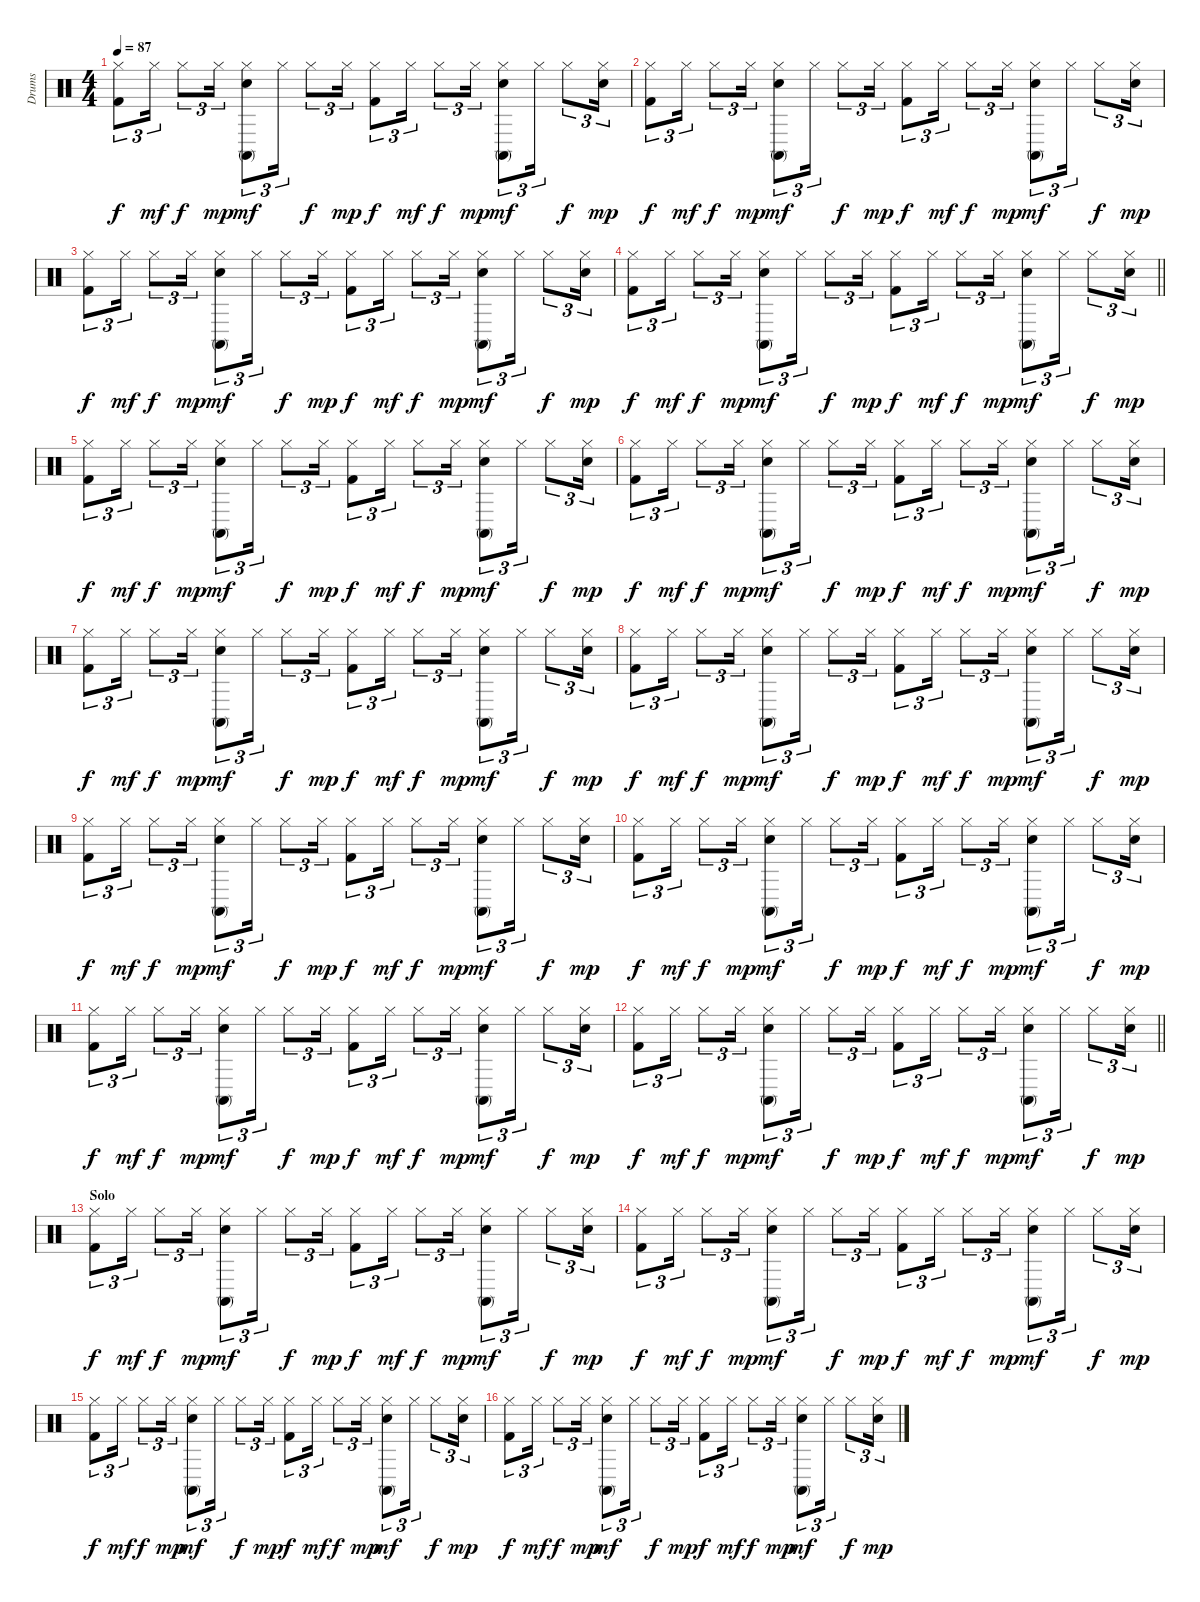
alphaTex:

\track ("Drums" "Drums") {instrument percussion}
\staff {score}
\articulation defaults
\ts (4 4)
\tempo 87
\clef neutral
\ks c
("Hi-Hat (closed)" "Kick (hit) 2").8{tu (3 2) dy f} "Hi-Hat (closed)".16{tu (3 2) dy mf} "Hi-Hat (closed)".8{tu (3 2) dy f} "Hi-Hat (closed)".16{tu (3 2) dy mp} ("Conga high (mute)" "Hi-Hat (closed)" "Electric Snare (hit)").8{tu (3 2) dy mf} "Hi-Hat (closed)".16{tu (3 2)} "Hi-Hat (closed)".8{tu (3 2) dy f} "Hi-Hat (closed)".16{tu (3 2) dy mp} ("Hi-Hat (closed)" "Kick (hit) 2").8{tu (3 2) dy f} "Hi-Hat (closed)".16{tu (3 2) dy mf} "Hi-Hat (closed)".8{tu (3 2) dy f} "Hi-Hat (closed)".16{tu (3 2) dy mp} ("Conga high (mute)" "Hi-Hat (closed)" "Electric Snare (hit)").8{tu (3 2) dy mf} "Hi-Hat (closed)".16{tu (3 2)} "Hi-Hat (closed)".8{tu (3 2) dy f} ("Hi-Hat (closed)" "Electric Snare (hit)").16{tu (3 2) dy mp} |
("Hi-Hat (closed)" "Kick (hit) 2").8{tu (3 2) dy f} "Hi-Hat (closed)".16{tu (3 2) dy mf} "Hi-Hat (closed)".8{tu (3 2) dy f} "Hi-Hat (closed)".16{tu (3 2) dy mp} ("Conga high (mute)" "Hi-Hat (closed)" "Electric Snare (hit)").8{tu (3 2) dy mf} "Hi-Hat (closed)".16{tu (3 2)} "Hi-Hat (closed)".8{tu (3 2) dy f} "Hi-Hat (closed)".16{tu (3 2) dy mp} ("Hi-Hat (closed)" "Kick (hit) 2").8{tu (3 2) dy f} "Hi-Hat (closed)".16{tu (3 2) dy mf} "Hi-Hat (closed)".8{tu (3 2) dy f} "Hi-Hat (closed)".16{tu (3 2) dy mp} ("Conga high (mute)" "Hi-Hat (closed)" "Electric Snare (hit)").8{tu (3 2) dy mf} "Hi-Hat (closed)".16{tu (3 2)} "Hi-Hat (closed)".8{tu (3 2) dy f} ("Hi-Hat (closed)" "Electric Snare (hit)").16{tu (3 2) dy mp} |
("Hi-Hat (closed)" "Kick (hit) 2").8{tu (3 2) dy f} "Hi-Hat (closed)".16{tu (3 2) dy mf} "Hi-Hat (closed)".8{tu (3 2) dy f} "Hi-Hat (closed)".16{tu (3 2) dy mp} ("Conga high (mute)" "Hi-Hat (closed)" "Electric Snare (hit)").8{tu (3 2) dy mf} "Hi-Hat (closed)".16{tu (3 2)} "Hi-Hat (closed)".8{tu (3 2) dy f} "Hi-Hat (closed)".16{tu (3 2) dy mp} ("Hi-Hat (closed)" "Kick (hit) 2").8{tu (3 2) dy f} "Hi-Hat (closed)".16{tu (3 2) dy mf} "Hi-Hat (closed)".8{tu (3 2) dy f} "Hi-Hat (closed)".16{tu (3 2) dy mp} ("Conga high (mute)" "Hi-Hat (closed)" "Electric Snare (hit)").8{tu (3 2) dy mf} "Hi-Hat (closed)".16{tu (3 2)} "Hi-Hat (closed)".8{tu (3 2) dy f} ("Hi-Hat (closed)" "Electric Snare (hit)").16{tu (3 2) dy mp} |
\barLineRight lightlight
("Hi-Hat (closed)" "Kick (hit) 2").8{tu (3 2) dy f} "Hi-Hat (closed)".16{tu (3 2) dy mf} "Hi-Hat (closed)".8{tu (3 2) dy f} "Hi-Hat (closed)".16{tu (3 2) dy mp} ("Conga high (mute)" "Hi-Hat (closed)" "Electric Snare (hit)").8{tu (3 2) dy mf} "Hi-Hat (closed)".16{tu (3 2)} "Hi-Hat (closed)".8{tu (3 2) dy f} "Hi-Hat (closed)".16{tu (3 2) dy mp} ("Hi-Hat (closed)" "Kick (hit) 2").8{tu (3 2) dy f} "Hi-Hat (closed)".16{tu (3 2) dy mf} "Hi-Hat (closed)".8{tu (3 2) dy f} "Hi-Hat (closed)".16{tu (3 2) dy mp} ("Conga high (mute)" "Hi-Hat (closed)" "Electric Snare (hit)").8{tu (3 2) dy mf} "Hi-Hat (closed)".16{tu (3 2)} "Hi-Hat (closed)".8{tu (3 2) dy f} ("Hi-Hat (closed)" "Electric Snare (hit)").16{tu (3 2) dy mp} |
("Hi-Hat (closed)" "Kick (hit) 2").8{tu (3 2) dy f} "Hi-Hat (closed)".16{tu (3 2) dy mf} "Hi-Hat (closed)".8{tu (3 2) dy f} "Hi-Hat (closed)".16{tu (3 2) dy mp} ("Conga high (mute)" "Hi-Hat (closed)" "Electric Snare (hit)").8{tu (3 2) dy mf} "Hi-Hat (closed)".16{tu (3 2)} "Hi-Hat (closed)".8{tu (3 2) dy f} "Hi-Hat (closed)".16{tu (3 2) dy mp} ("Hi-Hat (closed)" "Kick (hit) 2").8{tu (3 2) dy f} "Hi-Hat (closed)".16{tu (3 2) dy mf} "Hi-Hat (closed)".8{tu (3 2) dy f} "Hi-Hat (closed)".16{tu (3 2) dy mp} ("Conga high (mute)" "Hi-Hat (closed)" "Electric Snare (hit)").8{tu (3 2) dy mf} "Hi-Hat (closed)".16{tu (3 2)} "Hi-Hat (closed)".8{tu (3 2) dy f} ("Hi-Hat (closed)" "Electric Snare (hit)").16{tu (3 2) dy mp} |
("Hi-Hat (closed)" "Kick (hit) 2").8{tu (3 2) dy f} "Hi-Hat (closed)".16{tu (3 2) dy mf} "Hi-Hat (closed)".8{tu (3 2) dy f} "Hi-Hat (closed)".16{tu (3 2) dy mp} ("Conga high (mute)" "Hi-Hat (closed)" "Electric Snare (hit)").8{tu (3 2) dy mf} "Hi-Hat (closed)".16{tu (3 2)} "Hi-Hat (closed)".8{tu (3 2) dy f} "Hi-Hat (closed)".16{tu (3 2) dy mp} ("Hi-Hat (closed)" "Kick (hit) 2").8{tu (3 2) dy f} "Hi-Hat (closed)".16{tu (3 2) dy mf} "Hi-Hat (closed)".8{tu (3 2) dy f} "Hi-Hat (closed)".16{tu (3 2) dy mp} ("Conga high (mute)" "Hi-Hat (closed)" "Electric Snare (hit)").8{tu (3 2) dy mf} "Hi-Hat (closed)".16{tu (3 2)} "Hi-Hat (closed)".8{tu (3 2) dy f} ("Hi-Hat (closed)" "Electric Snare (hit)").16{tu (3 2) dy mp} |
("Hi-Hat (closed)" "Kick (hit) 2").8{tu (3 2) dy f} "Hi-Hat (closed)".16{tu (3 2) dy mf} "Hi-Hat (closed)".8{tu (3 2) dy f} "Hi-Hat (closed)".16{tu (3 2) dy mp} ("Conga high (mute)" "Hi-Hat (closed)" "Electric Snare (hit)").8{tu (3 2) dy mf} "Hi-Hat (closed)".16{tu (3 2)} "Hi-Hat (closed)".8{tu (3 2) dy f} "Hi-Hat (closed)".16{tu (3 2) dy mp} ("Hi-Hat (closed)" "Kick (hit) 2").8{tu (3 2) dy f} "Hi-Hat (closed)".16{tu (3 2) dy mf} "Hi-Hat (closed)".8{tu (3 2) dy f} "Hi-Hat (closed)".16{tu (3 2) dy mp} ("Conga high (mute)" "Hi-Hat (closed)" "Electric Snare (hit)").8{tu (3 2) dy mf} "Hi-Hat (closed)".16{tu (3 2)} "Hi-Hat (closed)".8{tu (3 2) dy f} ("Hi-Hat (closed)" "Electric Snare (hit)").16{tu (3 2) dy mp} |
("Hi-Hat (closed)" "Kick (hit) 2").8{tu (3 2) dy f} "Hi-Hat (closed)".16{tu (3 2) dy mf} "Hi-Hat (closed)".8{tu (3 2) dy f} "Hi-Hat (closed)".16{tu (3 2) dy mp} ("Conga high (mute)" "Hi-Hat (closed)" "Electric Snare (hit)").8{tu (3 2) dy mf} "Hi-Hat (closed)".16{tu (3 2)} "Hi-Hat (closed)".8{tu (3 2) dy f} "Hi-Hat (closed)".16{tu (3 2) dy mp} ("Hi-Hat (closed)" "Kick (hit) 2").8{tu (3 2) dy f} "Hi-Hat (closed)".16{tu (3 2) dy mf} "Hi-Hat (closed)".8{tu (3 2) dy f} "Hi-Hat (closed)".16{tu (3 2) dy mp} ("Conga high (mute)" "Hi-Hat (closed)" "Electric Snare (hit)").8{tu (3 2) dy mf} "Hi-Hat (closed)".16{tu (3 2)} "Hi-Hat (closed)".8{tu (3 2) dy f} ("Hi-Hat (closed)" "Electric Snare (hit)").16{tu (3 2) dy mp} |
("Hi-Hat (closed)" "Kick (hit) 2").8{tu (3 2) dy f} "Hi-Hat (closed)".16{tu (3 2) dy mf} "Hi-Hat (closed)".8{tu (3 2) dy f} "Hi-Hat (closed)".16{tu (3 2) dy mp} ("Conga high (mute)" "Hi-Hat (closed)" "Electric Snare (hit)").8{tu (3 2) dy mf} "Hi-Hat (closed)".16{tu (3 2)} "Hi-Hat (closed)".8{tu (3 2) dy f} "Hi-Hat (closed)".16{tu (3 2) dy mp} ("Hi-Hat (closed)" "Kick (hit) 2").8{tu (3 2) dy f} "Hi-Hat (closed)".16{tu (3 2) dy mf} "Hi-Hat (closed)".8{tu (3 2) dy f} "Hi-Hat (closed)".16{tu (3 2) dy mp} ("Conga high (mute)" "Hi-Hat (closed)" "Electric Snare (hit)").8{tu (3 2) dy mf} "Hi-Hat (closed)".16{tu (3 2)} "Hi-Hat (closed)".8{tu (3 2) dy f} ("Hi-Hat (closed)" "Electric Snare (hit)").16{tu (3 2) dy mp} |
("Hi-Hat (closed)" "Kick (hit) 2").8{tu (3 2) dy f} "Hi-Hat (closed)".16{tu (3 2) dy mf} "Hi-Hat (closed)".8{tu (3 2) dy f} "Hi-Hat (closed)".16{tu (3 2) dy mp} ("Conga high (mute)" "Hi-Hat (closed)" "Electric Snare (hit)").8{tu (3 2) dy mf} "Hi-Hat (closed)".16{tu (3 2)} "Hi-Hat (closed)".8{tu (3 2) dy f} "Hi-Hat (closed)".16{tu (3 2) dy mp} ("Hi-Hat (closed)" "Kick (hit) 2").8{tu (3 2) dy f} "Hi-Hat (closed)".16{tu (3 2) dy mf} "Hi-Hat (closed)".8{tu (3 2) dy f} "Hi-Hat (closed)".16{tu (3 2) dy mp} ("Conga high (mute)" "Hi-Hat (closed)" "Electric Snare (hit)").8{tu (3 2) dy mf} "Hi-Hat (closed)".16{tu (3 2)} "Hi-Hat (closed)".8{tu (3 2) dy f} ("Hi-Hat (closed)" "Electric Snare (hit)").16{tu (3 2) dy mp} |
("Hi-Hat (closed)" "Kick (hit) 2").8{tu (3 2) dy f} "Hi-Hat (closed)".16{tu (3 2) dy mf} "Hi-Hat (closed)".8{tu (3 2) dy f} "Hi-Hat (closed)".16{tu (3 2) dy mp} ("Conga high (mute)" "Hi-Hat (closed)" "Electric Snare (hit)").8{tu (3 2) dy mf} "Hi-Hat (closed)".16{tu (3 2)} "Hi-Hat (closed)".8{tu (3 2) dy f} "Hi-Hat (closed)".16{tu (3 2) dy mp} ("Hi-Hat (closed)" "Kick (hit) 2").8{tu (3 2) dy f} "Hi-Hat (closed)".16{tu (3 2) dy mf} "Hi-Hat (closed)".8{tu (3 2) dy f} "Hi-Hat (closed)".16{tu (3 2) dy mp} ("Conga high (mute)" "Hi-Hat (closed)" "Electric Snare (hit)").8{tu (3 2) dy mf} "Hi-Hat (closed)".16{tu (3 2)} "Hi-Hat (closed)".8{tu (3 2) dy f} ("Hi-Hat (closed)" "Electric Snare (hit)").16{tu (3 2) dy mp} |
\barLineRight lightlight
("Hi-Hat (closed)" "Kick (hit) 2").8{tu (3 2) dy f} "Hi-Hat (closed)".16{tu (3 2) dy mf} "Hi-Hat (closed)".8{tu (3 2) dy f} "Hi-Hat (closed)".16{tu (3 2) dy mp} ("Conga high (mute)" "Hi-Hat (closed)" "Electric Snare (hit)").8{tu (3 2) dy mf} "Hi-Hat (closed)".16{tu (3 2)} "Hi-Hat (closed)".8{tu (3 2) dy f} "Hi-Hat (closed)".16{tu (3 2) dy mp} ("Hi-Hat (closed)" "Kick (hit) 2").8{tu (3 2) dy f} "Hi-Hat (closed)".16{tu (3 2) dy mf} "Hi-Hat (closed)".8{tu (3 2) dy f} "Hi-Hat (closed)".16{tu (3 2) dy mp} ("Conga high (mute)" "Hi-Hat (closed)" "Electric Snare (hit)").8{tu (3 2) dy mf} "Hi-Hat (closed)".16{tu (3 2)} "Hi-Hat (closed)".8{tu (3 2) dy f} ("Hi-Hat (closed)" "Electric Snare (hit)").16{tu (3 2) dy mp} |
\section ("" "Solo")
("Hi-Hat (closed)" "Kick (hit) 2").8{tu (3 2) dy f} "Hi-Hat (closed)".16{tu (3 2) dy mf} "Hi-Hat (closed)".8{tu (3 2) dy f} "Hi-Hat (closed)".16{tu (3 2) dy mp} ("Conga high (mute)" "Hi-Hat (closed)" "Electric Snare (hit)").8{tu (3 2) dy mf} "Hi-Hat (closed)".16{tu (3 2)} "Hi-Hat (closed)".8{tu (3 2) dy f} "Hi-Hat (closed)".16{tu (3 2) dy mp} ("Hi-Hat (closed)" "Kick (hit) 2").8{tu (3 2) dy f} "Hi-Hat (closed)".16{tu (3 2) dy mf} "Hi-Hat (closed)".8{tu (3 2) dy f} "Hi-Hat (closed)".16{tu (3 2) dy mp} ("Conga high (mute)" "Hi-Hat (closed)" "Electric Snare (hit)").8{tu (3 2) dy mf} "Hi-Hat (closed)".16{tu (3 2)} "Hi-Hat (closed)".8{tu (3 2) dy f} ("Hi-Hat (closed)" "Electric Snare (hit)").16{tu (3 2) dy mp} |
("Hi-Hat (closed)" "Kick (hit) 2").8{tu (3 2) dy f} "Hi-Hat (closed)".16{tu (3 2) dy mf} "Hi-Hat (closed)".8{tu (3 2) dy f} "Hi-Hat (closed)".16{tu (3 2) dy mp} ("Conga high (mute)" "Hi-Hat (closed)" "Electric Snare (hit)").8{tu (3 2) dy mf} "Hi-Hat (closed)".16{tu (3 2)} "Hi-Hat (closed)".8{tu (3 2) dy f} "Hi-Hat (closed)".16{tu (3 2) dy mp} ("Hi-Hat (closed)" "Kick (hit) 2").8{tu (3 2) dy f} "Hi-Hat (closed)".16{tu (3 2) dy mf} "Hi-Hat (closed)".8{tu (3 2) dy f} "Hi-Hat (closed)".16{tu (3 2) dy mp} ("Conga high (mute)" "Hi-Hat (closed)" "Electric Snare (hit)").8{tu (3 2) dy mf} "Hi-Hat (closed)".16{tu (3 2)} "Hi-Hat (closed)".8{tu (3 2) dy f} ("Hi-Hat (closed)" "Electric Snare (hit)").16{tu (3 2) dy mp} |
("Hi-Hat (closed)" "Kick (hit) 2").8{tu (3 2) dy f} "Hi-Hat (closed)".16{tu (3 2) dy mf} "Hi-Hat (closed)".8{tu (3 2) dy f} "Hi-Hat (closed)".16{tu (3 2) dy mp} ("Conga high (mute)" "Hi-Hat (closed)" "Electric Snare (hit)").8{tu (3 2) dy mf} "Hi-Hat (closed)".16{tu (3 2)} "Hi-Hat (closed)".8{tu (3 2) dy f} "Hi-Hat (closed)".16{tu (3 2) dy mp} ("Hi-Hat (closed)" "Kick (hit) 2").8{tu (3 2) dy f} "Hi-Hat (closed)".16{tu (3 2) dy mf} "Hi-Hat (closed)".8{tu (3 2) dy f} "Hi-Hat (closed)".16{tu (3 2) dy mp} ("Conga high (mute)" "Hi-Hat (closed)" "Electric Snare (hit)").8{tu (3 2) dy mf} "Hi-Hat (closed)".16{tu (3 2)} "Hi-Hat (closed)".8{tu (3 2) dy f} ("Hi-Hat (closed)" "Electric Snare (hit)").16{tu (3 2) dy mp} |
("Hi-Hat (closed)" "Kick (hit) 2").8{tu (3 2) dy f} "Hi-Hat (closed)".16{tu (3 2) dy mf} "Hi-Hat (closed)".8{tu (3 2) dy f} "Hi-Hat (closed)".16{tu (3 2) dy mp} ("Conga high (mute)" "Hi-Hat (closed)" "Electric Snare (hit)").8{tu (3 2) dy mf} "Hi-Hat (closed)".16{tu (3 2)} "Hi-Hat (closed)".8{tu (3 2) dy f} "Hi-Hat (closed)".16{tu (3 2) dy mp} ("Hi-Hat (closed)" "Kick (hit) 2").8{tu (3 2) dy f} "Hi-Hat (closed)".16{tu (3 2) dy mf} "Hi-Hat (closed)".8{tu (3 2) dy f} "Hi-Hat (closed)".16{tu (3 2) dy mp} ("Conga high (mute)" "Hi-Hat (closed)" "Electric Snare (hit)").8{tu (3 2) dy mf} "Hi-Hat (closed)".16{tu (3 2)} "Hi-Hat (closed)".8{tu (3 2) dy f} ("Hi-Hat (closed)" "Electric Snare (hit)").16{tu (3 2) dy mp}
